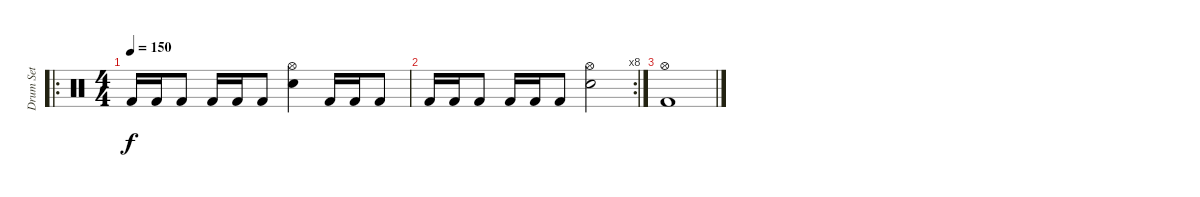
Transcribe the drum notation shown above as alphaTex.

\track ("Drum Set" "Drum Set") {instrument percussion}
\staff {score}
\articulation defaults
\ro
\ts (4 4)
\tempo 150
\clef neutral
\ks c "Kick (hit) 2".16{dy f} "Kick (hit) 2".16 "Kick (hit) 2".8 "Kick (hit) 2".16 "Kick (hit) 2".16 "Kick (hit) 2".8
("Hi-Hat (open)" "Snare (hit) 2").4 "Kick (hit) 2".16 "Kick (hit) 2".16 "Kick (hit) 2".8 |
\rc 8 "Kick (hit) 2".16 "Kick (hit) 2".16 "Kick (hit) 2".8 "Kick (hit) 2".16 "Kick (hit) 2".16 "Kick (hit) 2".8
("Hi-Hat (open)" "Snare (hit) 2").2 |
("Hi-Hat (open)" "Kick (hit) 2").1
